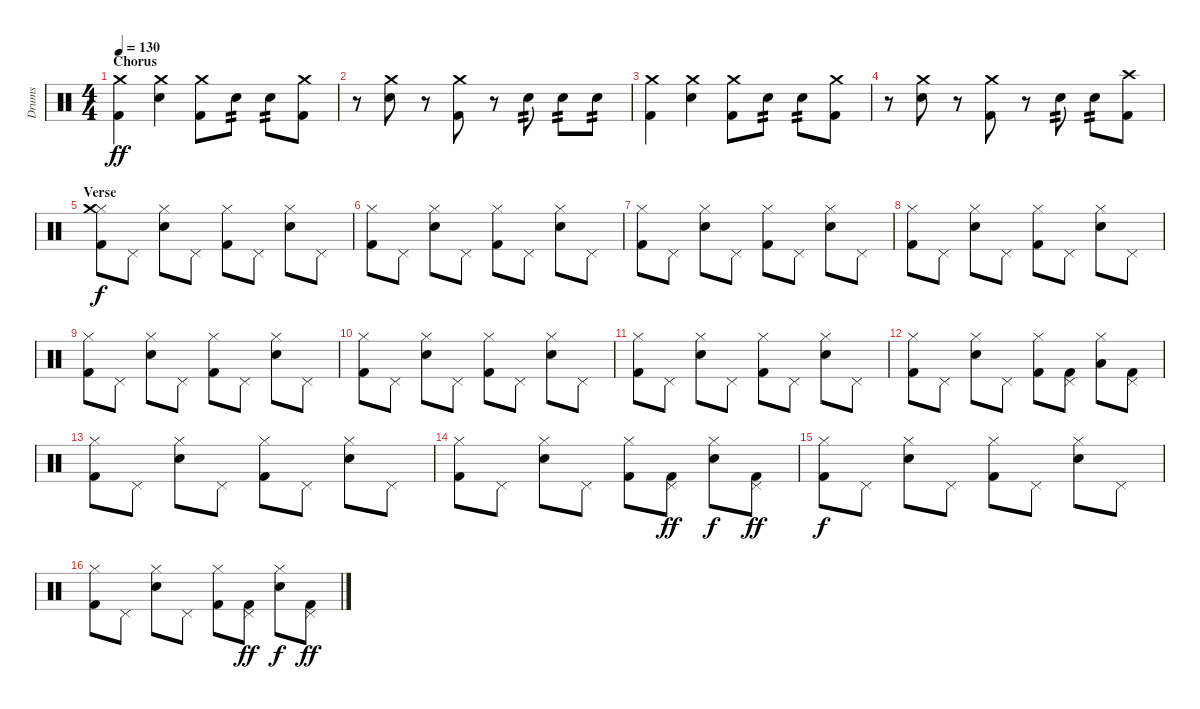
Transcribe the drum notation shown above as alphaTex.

\track ("Drums" "Drums") {instrument percussion}
\staff {score}
\articulation defaults
\ts (4 4)
\section ("" "Chorus")
\tempo 130
\clef neutral
\ks c
("Kick (hit) 2" "Crash medium (hit)").4{dy ff} ("Electric Snare (hit)" "Crash medium (hit)").4 ("Kick (hit) 2" "Crash medium (hit)").8 "Electric Snare (hit)".8{tp 2} "Electric Snare (hit)".8{tp 2} ("Kick (hit) 2" "Crash medium (hit)").8 |
r.8 ("Electric Snare (hit)" "Crash medium (hit)").8 r.8 ("Kick (hit) 2" "Crash medium (hit)").8 r.8 "Electric Snare (hit)".8{tp 2} "Electric Snare (hit)".8{tp 2} "Electric Snare (hit)".8{tp 2} |
("Kick (hit) 2" "Crash medium (hit)").4 ("Electric Snare (hit)" "Crash medium (hit)").4 ("Kick (hit) 2" "Crash medium (hit)").8 "Electric Snare (hit)".8{tp 2} "Electric Snare (hit)".8{tp 2} ("Kick (hit) 2" "Crash medium (hit)").8 |
r.8 ("Electric Snare (hit)" "Crash medium (hit)").8 r.8 ("Kick (hit) 2" "Crash medium (hit)").8 r.8 "Electric Snare (hit)".8{tp 2} "Electric Snare (hit)".8{tp 2} ("Kick (hit) 2" "Crash high (hit)").8 |
\section ("" "Verse")
("Kick (hit) 2" "Hi-Hat (closed)" "Crash medium (hit)").8{dy f} "Pedal Hi-Hat (hit)".8 ("Electric Snare (hit)" "Hi-Hat (closed)").8 "Pedal Hi-Hat (hit)".8 ("Kick (hit) 2" "Hi-Hat (closed)").8 "Pedal Hi-Hat (hit)".8 ("Electric Snare (hit)" "Hi-Hat (closed)").8 "Pedal Hi-Hat (hit)".8 |
("Kick (hit) 2" "Hi-Hat (closed)").8 "Pedal Hi-Hat (hit)".8 ("Electric Snare (hit)" "Hi-Hat (closed)").8 "Pedal Hi-Hat (hit)".8 ("Kick (hit) 2" "Hi-Hat (closed)").8 "Pedal Hi-Hat (hit)".8 ("Electric Snare (hit)" "Hi-Hat (closed)").8 "Pedal Hi-Hat (hit)".8 |
("Kick (hit) 2" "Hi-Hat (closed)").8 "Pedal Hi-Hat (hit)".8 ("Electric Snare (hit)" "Hi-Hat (closed)").8 "Pedal Hi-Hat (hit)".8 ("Kick (hit) 2" "Hi-Hat (closed)").8 "Pedal Hi-Hat (hit)".8 ("Electric Snare (hit)" "Hi-Hat (closed)").8 "Pedal Hi-Hat (hit)".8 |
("Kick (hit) 2" "Hi-Hat (closed)").8 "Pedal Hi-Hat (hit)".8 ("Electric Snare (hit)" "Hi-Hat (closed)").8 "Pedal Hi-Hat (hit)".8 ("Kick (hit) 2" "Hi-Hat (closed)").8 "Pedal Hi-Hat (hit)".8 ("Electric Snare (hit)" "Hi-Hat (closed)").8 "Pedal Hi-Hat (hit)".8 |
("Kick (hit) 2" "Hi-Hat (closed)").8 "Pedal Hi-Hat (hit)".8 ("Electric Snare (hit)" "Hi-Hat (closed)").8 "Pedal Hi-Hat (hit)".8 ("Kick (hit) 2" "Hi-Hat (closed)").8 "Pedal Hi-Hat (hit)".8 ("Electric Snare (hit)" "Hi-Hat (closed)").8 "Pedal Hi-Hat (hit)".8 |
("Kick (hit) 2" "Hi-Hat (closed)").8 "Pedal Hi-Hat (hit)".8 ("Electric Snare (hit)" "Hi-Hat (closed)").8 "Pedal Hi-Hat (hit)".8 ("Kick (hit) 2" "Hi-Hat (closed)").8 "Pedal Hi-Hat (hit)".8 ("Electric Snare (hit)" "Hi-Hat (closed)").8 "Pedal Hi-Hat (hit)".8 |
("Kick (hit) 2" "Hi-Hat (closed)").8 "Pedal Hi-Hat (hit)".8 ("Electric Snare (hit)" "Hi-Hat (closed)").8 "Pedal Hi-Hat (hit)".8 ("Kick (hit) 2" "Hi-Hat (closed)").8 "Pedal Hi-Hat (hit)".8 ("Electric Snare (hit)" "Hi-Hat (closed)").8 "Pedal Hi-Hat (hit)".8 |
("Kick (hit) 2" "Hi-Hat (closed)").8 "Pedal Hi-Hat (hit)".8 ("Electric Snare (hit)" "Hi-Hat (closed)").8 "Pedal Hi-Hat (hit)".8 ("Kick (hit) 2" "Hi-Hat (closed)").8 ("Kick (hit) 2" "Pedal Hi-Hat (hit)").8 ("Low Floor Tom (hit)" "Hi-Hat (closed)").8 ("Kick (hit) 2" "Pedal Hi-Hat (hit)").8 |
("Kick (hit) 2" "Hi-Hat (closed)").8 "Pedal Hi-Hat (hit)".8 ("Electric Snare (hit)" "Hi-Hat (closed)").8 "Pedal Hi-Hat (hit)".8 ("Kick (hit) 2" "Hi-Hat (closed)").8 "Pedal Hi-Hat (hit)".8 ("Electric Snare (hit)" "Hi-Hat (closed)").8 "Pedal Hi-Hat (hit)".8 |
("Kick (hit) 2" "Hi-Hat (closed)").8 "Pedal Hi-Hat (hit)".8 ("Electric Snare (hit)" "Hi-Hat (closed)").8 "Pedal Hi-Hat (hit)".8 ("Kick (hit) 2" "Hi-Hat (closed)").8 ("Kick (hit) 2" "Pedal Hi-Hat (hit)").8{dy ff} ("Electric Snare (hit)" "Hi-Hat (closed)").8{dy f} ("Kick (hit) 2" "Pedal Hi-Hat (hit)").8{dy ff} |
("Kick (hit) 2" "Hi-Hat (closed)").8{dy f} "Pedal Hi-Hat (hit)".8 ("Electric Snare (hit)" "Hi-Hat (closed)").8 "Pedal Hi-Hat (hit)".8 ("Kick (hit) 2" "Hi-Hat (closed)").8 "Pedal Hi-Hat (hit)".8 ("Electric Snare (hit)" "Hi-Hat (closed)").8 "Pedal Hi-Hat (hit)".8 |
("Kick (hit) 2" "Hi-Hat (closed)").8 "Pedal Hi-Hat (hit)".8 ("Electric Snare (hit)" "Hi-Hat (closed)").8 "Pedal Hi-Hat (hit)".8 ("Kick (hit) 2" "Hi-Hat (closed)").8 ("Kick (hit) 2" "Pedal Hi-Hat (hit)").8{dy ff} ("Electric Snare (hit)" "Hi-Hat (closed)").8{dy f} ("Kick (hit) 2" "Pedal Hi-Hat (hit)").8{dy ff}
